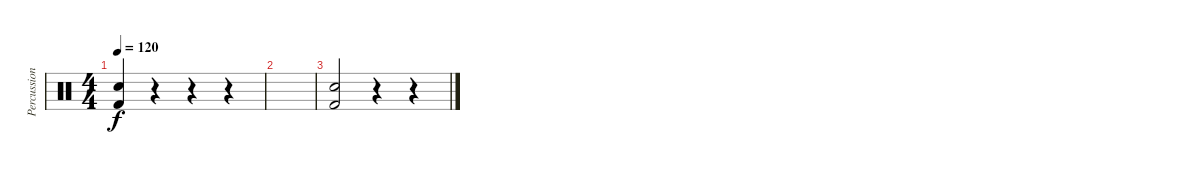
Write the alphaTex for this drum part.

\track ("Percussion" "Percussion") {instrument percussion}
\staff {score}
\articulation defaults
\ts (4 4)
\tempo 120
\clef neutral
\ks c
("Electric Snare (hit)" "Kick (hit) 2").4{dy f} r.4 r.4 r.4 |
|
("Electric Snare (hit)" "Kick (hit) 2").2 r.4 r.4
